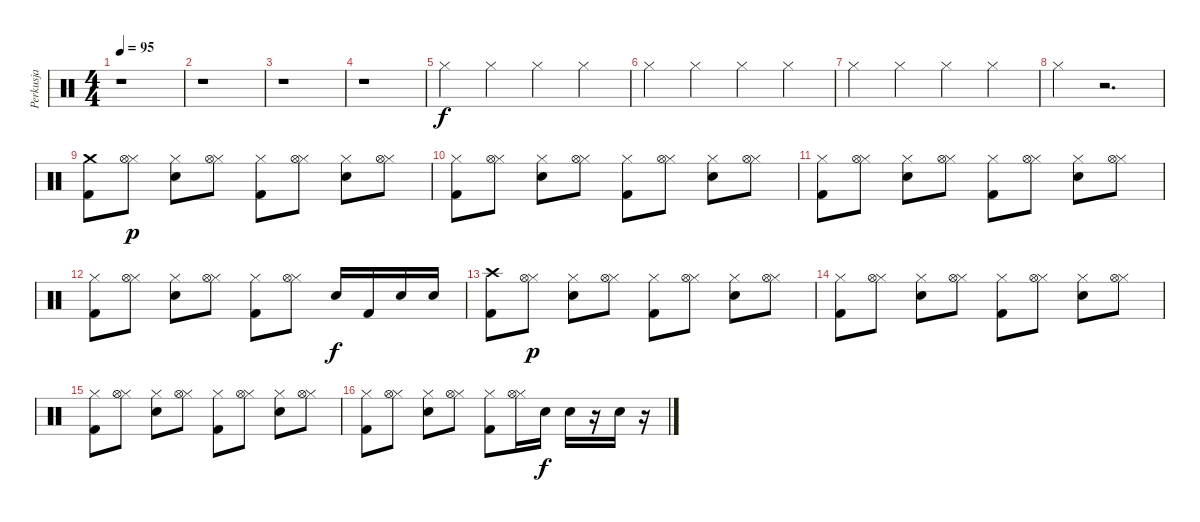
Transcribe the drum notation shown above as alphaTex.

\track ("Perkusja" "Perkusja") {instrument percussion}
\staff {score}
\articulation defaults
\ts (4 4)
\tempo 95
\clef neutral
\ks c
r.1{dy f} |
r.1 |
r.1 |
r.1 |
"Hi-Hat (closed)".4 "Hi-Hat (closed)".4 "Hi-Hat (closed)".4 "Hi-Hat (closed)".4 |
"Hi-Hat (closed)".4 "Hi-Hat (closed)".4 "Hi-Hat (closed)".4 "Hi-Hat (closed)".4 |
"Hi-Hat (closed)".4 "Hi-Hat (closed)".4 "Hi-Hat (closed)".4 "Hi-Hat (closed)".4 |
"Hi-Hat (closed)".4 r.2{d} |
("Kick (hit) 2" "Crash medium (hit)").8 ("Hi-Hat (closed)" "Hi-Hat (open)").8{dy p} ("Electric Snare (hit)" "Hi-Hat (closed)").8 ("Hi-Hat (closed)" "Hi-Hat (open)").8 ("Kick (hit) 2" "Hi-Hat (closed)").8 ("Hi-Hat (closed)" "Hi-Hat (open)").8 ("Electric Snare (hit)" "Hi-Hat (closed)").8 ("Hi-Hat (closed)" "Hi-Hat (open)").8 |
("Kick (hit) 2" "Hi-Hat (closed)").8 ("Hi-Hat (closed)" "Hi-Hat (open)").8 ("Electric Snare (hit)" "Hi-Hat (closed)").8 ("Hi-Hat (closed)" "Hi-Hat (open)").8 ("Kick (hit) 2" "Hi-Hat (closed)").8 ("Hi-Hat (closed)" "Hi-Hat (open)").8 ("Electric Snare (hit)" "Hi-Hat (closed)").8 ("Hi-Hat (closed)" "Hi-Hat (open)").8 |
("Kick (hit) 2" "Hi-Hat (closed)").8 ("Hi-Hat (closed)" "Hi-Hat (open)").8 ("Electric Snare (hit)" "Hi-Hat (closed)").8 ("Hi-Hat (closed)" "Hi-Hat (open)").8 ("Kick (hit) 2" "Hi-Hat (closed)").8 ("Hi-Hat (closed)" "Hi-Hat (open)").8 ("Electric Snare (hit)" "Hi-Hat (closed)").8 ("Hi-Hat (closed)" "Hi-Hat (open)").8 |
("Kick (hit) 2" "Hi-Hat (closed)").8 ("Hi-Hat (closed)" "Hi-Hat (open)").8 ("Electric Snare (hit)" "Hi-Hat (closed)").8 ("Hi-Hat (closed)" "Hi-Hat (open)").8 ("Kick (hit) 2" "Hi-Hat (closed)").8 ("Hi-Hat (closed)" "Hi-Hat (open)").8 "Electric Snare (hit)".16{dy f} "Kick (hit) 2".16 "Electric Snare (hit)".16 "Electric Snare (hit)".16 |
("Kick (hit) 2" "Crash high (hit)").8 ("Hi-Hat (closed)" "Hi-Hat (open)").8{dy p} ("Electric Snare (hit)" "Hi-Hat (closed)").8 ("Hi-Hat (closed)" "Hi-Hat (open)").8 ("Kick (hit) 2" "Hi-Hat (closed)").8 ("Hi-Hat (closed)" "Hi-Hat (open)").8 ("Electric Snare (hit)" "Hi-Hat (closed)").8 ("Hi-Hat (closed)" "Hi-Hat (open)").8 |
("Kick (hit) 2" "Hi-Hat (closed)").8 ("Hi-Hat (closed)" "Hi-Hat (open)").8 ("Electric Snare (hit)" "Hi-Hat (closed)").8 ("Hi-Hat (closed)" "Hi-Hat (open)").8 ("Kick (hit) 2" "Hi-Hat (closed)").8 ("Hi-Hat (closed)" "Hi-Hat (open)").8 ("Electric Snare (hit)" "Hi-Hat (closed)").8 ("Hi-Hat (closed)" "Hi-Hat (open)").8 |
("Kick (hit) 2" "Hi-Hat (closed)").8 ("Hi-Hat (closed)" "Hi-Hat (open)").8 ("Electric Snare (hit)" "Hi-Hat (closed)").8 ("Hi-Hat (closed)" "Hi-Hat (open)").8 ("Kick (hit) 2" "Hi-Hat (closed)").8 ("Hi-Hat (closed)" "Hi-Hat (open)").8 ("Electric Snare (hit)" "Hi-Hat (closed)").8 ("Hi-Hat (closed)" "Hi-Hat (open)").8 |
("Kick (hit) 2" "Hi-Hat (closed)").8 ("Hi-Hat (closed)" "Hi-Hat (open)").8 ("Electric Snare (hit)" "Hi-Hat (closed)").8 ("Hi-Hat (closed)" "Hi-Hat (open)").8 ("Kick (hit) 2" "Hi-Hat (closed)").8 ("Hi-Hat (closed)" "Hi-Hat (open)").16 "Electric Snare (hit)".16{dy f} "Electric Snare (hit)".16 r.16 "Electric Snare (hit)".16 r.16
